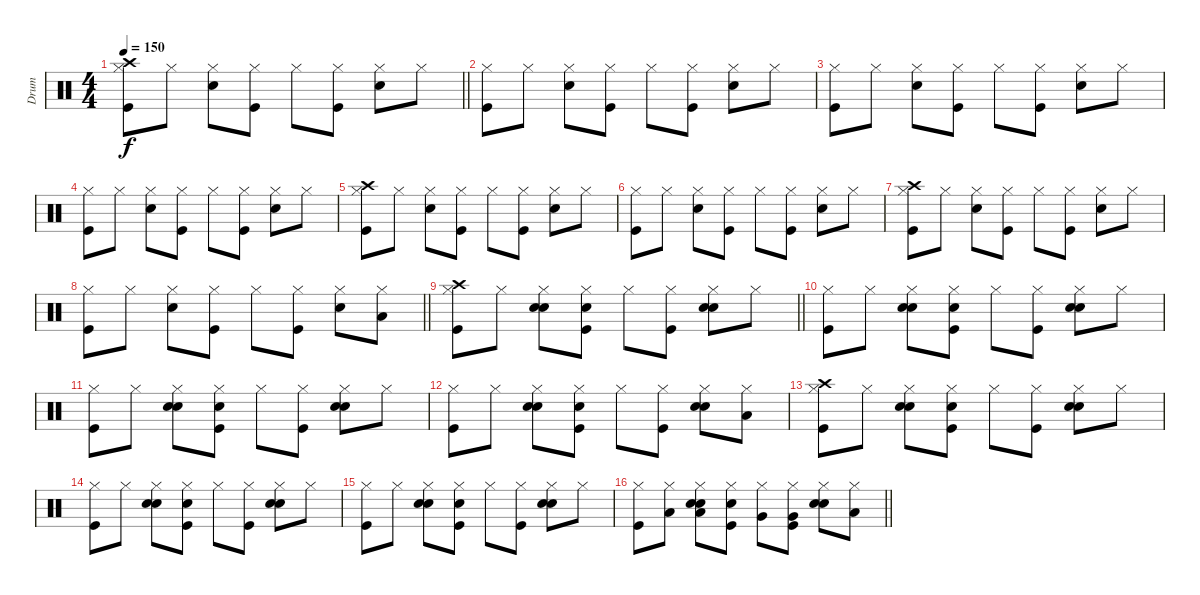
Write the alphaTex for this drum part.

\track ("Drum" "Drum") {instrument percussion}
\staff {score}
\articulation defaults
\ts (4 4)
\tempo 150
\clef neutral
\barLineRight lightlight
\ks c
("Kick (hit)" "Hi-Hat (closed)" "Crash high (hit)").8{dy f} "Hi-Hat (closed)".8 ("Snare (hit) 2" "Hi-Hat (closed)").8 ("Kick (hit)" "Hi-Hat (closed)").8 "Hi-Hat (closed)".8 ("Kick (hit)" "Hi-Hat (closed)").8 ("Snare (hit) 2" "Hi-Hat (closed)").8 "Hi-Hat (closed)".8 |
("Kick (hit)" "Hi-Hat (closed)").8 "Hi-Hat (closed)".8 ("Snare (hit) 2" "Hi-Hat (closed)").8 ("Kick (hit)" "Hi-Hat (closed)").8 "Hi-Hat (closed)".8 ("Kick (hit)" "Hi-Hat (closed)").8 ("Snare (hit) 2" "Hi-Hat (closed)").8 "Hi-Hat (closed)".8 |
("Kick (hit)" "Hi-Hat (closed)").8 "Hi-Hat (closed)".8 ("Snare (hit) 2" "Hi-Hat (closed)").8 ("Kick (hit)" "Hi-Hat (closed)").8 "Hi-Hat (closed)".8 ("Kick (hit)" "Hi-Hat (closed)").8 ("Snare (hit) 2" "Hi-Hat (closed)").8 "Hi-Hat (closed)".8 |
("Kick (hit)" "Hi-Hat (closed)").8 "Hi-Hat (closed)".8 ("Snare (hit) 2" "Hi-Hat (closed)").8 ("Kick (hit)" "Hi-Hat (closed)").8 "Hi-Hat (closed)".8 ("Kick (hit)" "Hi-Hat (closed)").8 ("Snare (hit) 2" "Hi-Hat (closed)").8 "Hi-Hat (closed)".8 |
("Kick (hit)" "Hi-Hat (closed)" "Crash high (hit)").8 "Hi-Hat (closed)".8 ("Snare (hit) 2" "Hi-Hat (closed)").8 ("Kick (hit)" "Hi-Hat (closed)").8 "Hi-Hat (closed)".8 ("Kick (hit)" "Hi-Hat (closed)").8 ("Snare (hit) 2" "Hi-Hat (closed)").8 "Hi-Hat (closed)".8 |
("Kick (hit)" "Hi-Hat (closed)").8 "Hi-Hat (closed)".8 ("Snare (hit) 2" "Hi-Hat (closed)").8 ("Kick (hit)" "Hi-Hat (closed)").8 "Hi-Hat (closed)".8 ("Kick (hit)" "Hi-Hat (closed)").8 ("Snare (hit) 2" "Hi-Hat (closed)").8 "Hi-Hat (closed)".8 |
("Kick (hit)" "Hi-Hat (closed)" "Crash high (hit)").8 "Hi-Hat (closed)".8 ("Snare (hit) 2" "Hi-Hat (closed)").8 ("Kick (hit)" "Hi-Hat (closed)").8 "Hi-Hat (closed)".8 ("Kick (hit)" "Hi-Hat (closed)").8 ("Snare (hit) 2" "Hi-Hat (closed)").8 "Hi-Hat (closed)".8 |
\barLineRight lightlight
("Kick (hit)" "Hi-Hat (closed)").8 "Hi-Hat (closed)".8 ("Snare (hit) 2" "Hi-Hat (closed)").8 ("Kick (hit)" "Hi-Hat (closed)").8 "Hi-Hat (closed)".8 ("Kick (hit)" "Hi-Hat (closed)").8 ("Snare (hit) 2" "Hi-Hat (closed)").8 ("Hi-Hat (closed)" "Low Floor Tom (hit)").8 |
\barLineRight lightlight
("Kick (hit)" "Hi-Hat (closed)" "Crash high (hit)").8 "Hi-Hat (closed)".8 ("Snare (hit) 2" "Hi-Hat (closed)" "Hand Clap (hit)").8 ("Kick (hit)" "Hi-Hat (closed)" "Hand Clap (hit)").8 "Hi-Hat (closed)".8 ("Kick (hit)" "Hi-Hat (closed)").8 ("Snare (hit) 2" "Hi-Hat (closed)" "Hand Clap (hit)").8 "Hi-Hat (closed)".8 |
("Kick (hit)" "Hi-Hat (closed)").8 "Hi-Hat (closed)".8 ("Snare (hit) 2" "Hi-Hat (closed)" "Hand Clap (hit)").8 ("Kick (hit)" "Hi-Hat (closed)" "Hand Clap (hit)").8 "Hi-Hat (closed)".8 ("Kick (hit)" "Hi-Hat (closed)").8 ("Snare (hit) 2" "Hi-Hat (closed)" "Hand Clap (hit)").8 "Hi-Hat (closed)".8 |
("Kick (hit)" "Hi-Hat (closed)").8 "Hi-Hat (closed)".8 ("Snare (hit) 2" "Hi-Hat (closed)" "Hand Clap (hit)").8 ("Kick (hit)" "Hi-Hat (closed)" "Hand Clap (hit)").8 "Hi-Hat (closed)".8 ("Kick (hit)" "Hi-Hat (closed)").8 ("Snare (hit) 2" "Hi-Hat (closed)" "Hand Clap (hit)").8 "Hi-Hat (closed)".8 |
("Kick (hit)" "Hi-Hat (closed)").8 "Hi-Hat (closed)".8 ("Snare (hit) 2" "Hi-Hat (closed)" "Hand Clap (hit)").8 ("Kick (hit)" "Hi-Hat (closed)" "Hand Clap (hit)").8 "Hi-Hat (closed)".8 ("Kick (hit)" "Hi-Hat (closed)").8 ("Snare (hit) 2" "Hi-Hat (closed)" "Hand Clap (hit)").8 ("Hi-Hat (closed)" "Low Floor Tom (hit)").8 |
("Kick (hit)" "Hi-Hat (closed)" "Crash high (hit)").8 "Hi-Hat (closed)".8 ("Snare (hit) 2" "Hi-Hat (closed)" "Hand Clap (hit)").8 ("Kick (hit)" "Hi-Hat (closed)" "Hand Clap (hit)").8 "Hi-Hat (closed)".8 ("Kick (hit)" "Hi-Hat (closed)").8 ("Snare (hit) 2" "Hi-Hat (closed)" "Hand Clap (hit)").8 "Hi-Hat (closed)".8 |
("Kick (hit)" "Hi-Hat (closed)").8 "Hi-Hat (closed)".8 ("Snare (hit) 2" "Hi-Hat (closed)" "Hand Clap (hit)").8 ("Kick (hit)" "Hi-Hat (closed)" "Hand Clap (hit)").8 "Hi-Hat (closed)".8 ("Kick (hit)" "Hi-Hat (closed)").8 ("Snare (hit) 2" "Hi-Hat (closed)" "Hand Clap (hit)").8 "Hi-Hat (closed)".8 |
("Kick (hit)" "Hi-Hat (closed)").8 "Hi-Hat (closed)".8 ("Snare (hit) 2" "Hi-Hat (closed)" "Hand Clap (hit)").8 ("Kick (hit)" "Hi-Hat (closed)" "Hand Clap (hit)").8 "Hi-Hat (closed)".8 ("Kick (hit)" "Hi-Hat (closed)").8 ("Snare (hit) 2" "Hi-Hat (closed)" "Hand Clap (hit)").8 "Hi-Hat (closed)".8 |
\barLineRight lightlight
("Kick (hit)" "Hi-Hat (closed)").8 ("Hi-Hat (closed)" "Low Tom (hit)").8 ("Snare (hit) 2" "Hi-Hat (closed)" "Hand Clap (hit)" "Low Tom (hit)").8 ("Kick (hit)" "Hi-Hat (closed)" "Hand Clap (hit)").8 ("Hi-Hat (closed)" "Very Low Tom (hit)").8 ("Kick (hit)" "Hi-Hat (closed)" "Very Low Tom (hit)").8 ("Snare (hit) 2" "Hi-Hat (closed)" "Hand Clap (hit)").8 ("Hi-Hat (closed)" "Low Floor Tom (hit)").8
